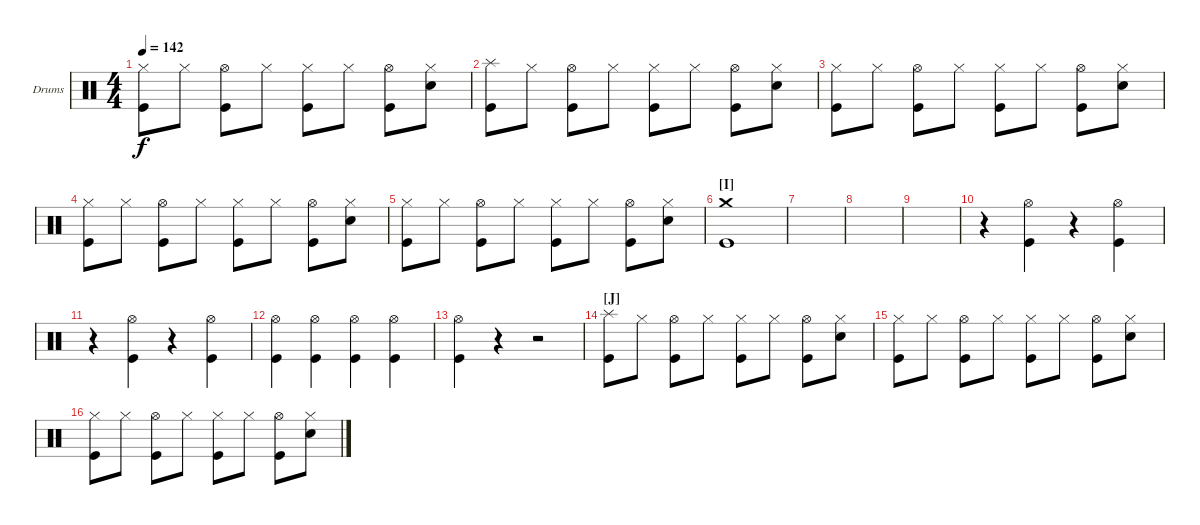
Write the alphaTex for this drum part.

\defaultSystemsLayout 4
\bracketExtendMode groupsimilarinstruments
\firstSystemTrackNameOrientation horizontal
\otherSystemsTrackNameOrientation horizontal
\track ("Drumkit" "Drums") {instrument percussion}
\staff {score}
\articulation defaults
\ts (4 4)
\tempo 142
\clef neutral
\ks c
("Kick (hit)" "Hi-Hat (closed)").8{dy f} "Hi-Hat (closed)".8 ("Hi-Hat (open)" "Kick (hit)").8 "Hi-Hat (closed)".8 ("Hi-Hat (closed)" "Kick (hit)").8 "Hi-Hat (closed)".8 ("Hi-Hat (open)" "Kick (hit)").8 ("Hi-Hat (closed)" "Snare (hit) 2").8 |
("Kick (hit)" "Splash (hit)").8 "Hi-Hat (closed)".8 ("Hi-Hat (open)" "Kick (hit)").8 "Hi-Hat (closed)".8 ("Hi-Hat (closed)" "Kick (hit)").8 "Hi-Hat (closed)".8 ("Hi-Hat (open)" "Kick (hit)").8 ("Hi-Hat (closed)" "Snare (hit) 2").8 |
("Kick (hit)" "Hi-Hat (closed)").8 "Hi-Hat (closed)".8 ("Hi-Hat (open)" "Kick (hit)").8 "Hi-Hat (closed)".8 ("Hi-Hat (closed)" "Kick (hit)").8 "Hi-Hat (closed)".8 ("Hi-Hat (open)" "Kick (hit)").8 ("Hi-Hat (closed)" "Snare (hit) 2").8 |
("Kick (hit)" "Hi-Hat (closed)").8 "Hi-Hat (closed)".8 ("Hi-Hat (open)" "Kick (hit)").8 "Hi-Hat (closed)".8 ("Hi-Hat (closed)" "Kick (hit)").8 "Hi-Hat (closed)".8 ("Hi-Hat (open)" "Kick (hit)").8 ("Hi-Hat (closed)" "Snare (hit) 2").8 |
("Kick (hit)" "Hi-Hat (closed)").8 "Hi-Hat (closed)".8 ("Hi-Hat (open)" "Kick (hit)").8 "Hi-Hat (closed)".8 ("Hi-Hat (closed)" "Kick (hit)").8 "Hi-Hat (closed)".8 ("Hi-Hat (open)" "Kick (hit)").8 ("Hi-Hat (closed)" "Snare (hit) 2").8 |
\section ("I" "")
("Kick (hit)" "Crash medium (hit)").1 |
|
|
|
r.4 ("Kick (hit)" "Hi-Hat (open)").4 r.4 ("Kick (hit)" "Hi-Hat (open)").4 |
r.4 ("Kick (hit)" "Hi-Hat (open)").4 r.4 ("Kick (hit)" "Hi-Hat (open)").4 |
("Kick (hit)" "Hi-Hat (open)").4 ("Kick (hit)" "Hi-Hat (open)").4 ("Hi-Hat (open)" "Kick (hit)").4 ("Hi-Hat (open)" "Kick (hit)").4 |
("Kick (hit)" "Hi-Hat (open)").4 r.4 r.2 |
\section ("J" "")
("Kick (hit)" "Splash (hit)").8 "Hi-Hat (closed)".8 ("Hi-Hat (open)" "Kick (hit)").8 "Hi-Hat (closed)".8 ("Hi-Hat (closed)" "Kick (hit)").8 "Hi-Hat (closed)".8 ("Hi-Hat (open)" "Kick (hit)").8 ("Hi-Hat (closed)" "Snare (hit) 2").8 |
("Kick (hit)" "Hi-Hat (closed)").8 "Hi-Hat (closed)".8 ("Hi-Hat (open)" "Kick (hit)").8 "Hi-Hat (closed)".8 ("Hi-Hat (closed)" "Kick (hit)").8 "Hi-Hat (closed)".8 ("Hi-Hat (open)" "Kick (hit)").8 ("Hi-Hat (closed)" "Snare (hit) 2").8 |
("Kick (hit)" "Hi-Hat (closed)").8 "Hi-Hat (closed)".8 ("Hi-Hat (open)" "Kick (hit)").8 "Hi-Hat (closed)".8 ("Hi-Hat (closed)" "Kick (hit)").8 "Hi-Hat (closed)".8 ("Hi-Hat (open)" "Kick (hit)").8 ("Hi-Hat (closed)" "Snare (hit) 2").8
